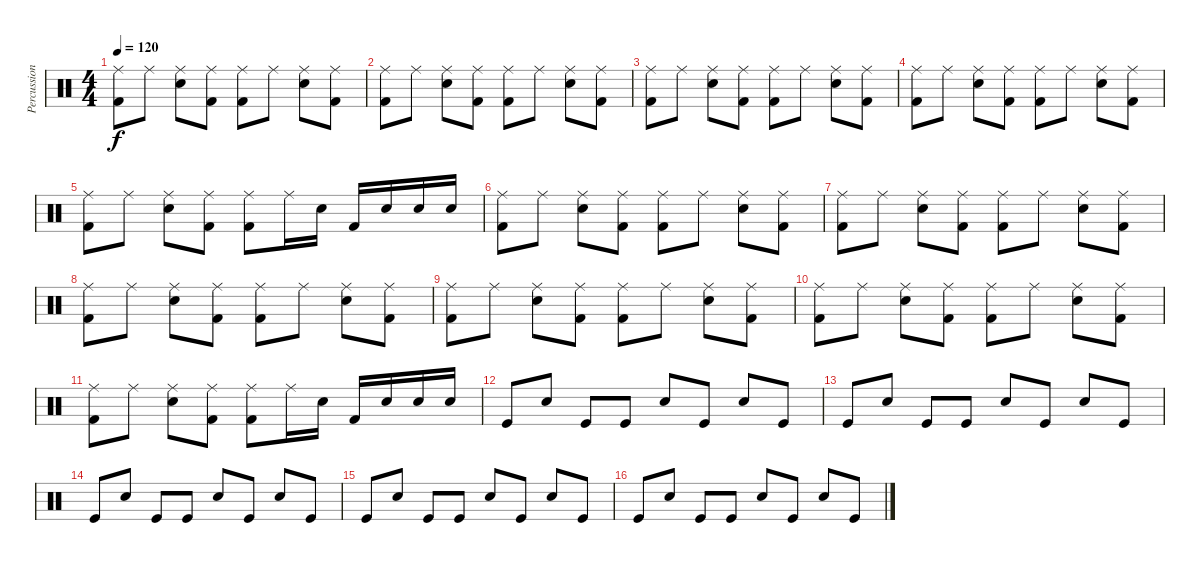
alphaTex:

\track ("Percussion" "Percussion") {instrument percussion}
\staff {score}
\articulation defaults
\ts (4 4)
\tempo 120
\clef neutral
\ks c
("Kick (hit) 2" "Ride (middle)").8{dy f} "Ride (middle)".8 ("Electric Snare (hit)" "Ride (middle)").8 ("Kick (hit) 2" "Ride (middle)").8 ("Kick (hit) 2" "Ride (middle)").8 "Ride (middle)".8 ("Electric Snare (hit)" "Ride (middle)").8 ("Kick (hit) 2" "Ride (middle)").8 |
("Kick (hit) 2" "Ride (middle)").8 "Ride (middle)".8 ("Electric Snare (hit)" "Ride (middle)").8 ("Kick (hit) 2" "Ride (middle)").8 ("Kick (hit) 2" "Ride (middle)").8 "Ride (middle)".8 ("Electric Snare (hit)" "Ride (middle)").8 ("Kick (hit) 2" "Ride (middle)").8 |
("Kick (hit) 2" "Ride (middle)").8 "Ride (middle)".8 ("Electric Snare (hit)" "Ride (middle)").8 ("Kick (hit) 2" "Ride (middle)").8 ("Kick (hit) 2" "Ride (middle)").8 "Ride (middle)".8 ("Electric Snare (hit)" "Ride (middle)").8 ("Kick (hit) 2" "Ride (middle)").8 |
("Kick (hit) 2" "Ride (middle)").8 "Ride (middle)".8 ("Electric Snare (hit)" "Ride (middle)").8 ("Kick (hit) 2" "Ride (middle)").8 ("Kick (hit) 2" "Ride (middle)").8 "Ride (middle)".8 ("Electric Snare (hit)" "Ride (middle)").8 ("Kick (hit) 2" "Ride (middle)").8 |
("Kick (hit) 2" "Ride (middle)").8 "Ride (middle)".8 ("Electric Snare (hit)" "Ride (middle)").8 ("Kick (hit) 2" "Ride (middle)").8 ("Kick (hit) 2" "Ride (middle)").8 "Ride (middle)".16 "Electric Snare (hit)".16 "Kick (hit) 2".16 "Electric Snare (hit)".16 "Electric Snare (hit)".16 "Electric Snare (hit)".16 |
("Kick (hit) 2" "Ride (middle)").8 "Ride (middle)".8 ("Electric Snare (hit)" "Ride (middle)").8 ("Kick (hit) 2" "Ride (middle)").8 ("Kick (hit) 2" "Ride (middle)").8 "Ride (middle)".8 ("Electric Snare (hit)" "Ride (middle)").8 ("Kick (hit) 2" "Ride (middle)").8 |
("Kick (hit) 2" "Ride (middle)").8 "Ride (middle)".8 ("Electric Snare (hit)" "Ride (middle)").8 ("Kick (hit) 2" "Ride (middle)").8 ("Kick (hit) 2" "Ride (middle)").8 "Ride (middle)".8 ("Electric Snare (hit)" "Ride (middle)").8 ("Kick (hit) 2" "Ride (middle)").8 |
("Kick (hit) 2" "Ride (middle)").8 "Ride (middle)".8 ("Electric Snare (hit)" "Ride (middle)").8 ("Kick (hit) 2" "Ride (middle)").8 ("Kick (hit) 2" "Ride (middle)").8 "Ride (middle)".8 ("Electric Snare (hit)" "Ride (middle)").8 ("Kick (hit) 2" "Ride (middle)").8 |
("Kick (hit) 2" "Ride (middle)").8 "Ride (middle)".8 ("Electric Snare (hit)" "Ride (middle)").8 ("Kick (hit) 2" "Ride (middle)").8 ("Kick (hit) 2" "Ride (middle)").8 "Ride (middle)".8 ("Electric Snare (hit)" "Ride (middle)").8 ("Kick (hit) 2" "Ride (middle)").8 |
("Kick (hit) 2" "Ride (middle)").8 "Ride (middle)".8 ("Electric Snare (hit)" "Ride (middle)").8 ("Kick (hit) 2" "Ride (middle)").8 ("Kick (hit) 2" "Ride (middle)").8 "Ride (middle)".8 ("Electric Snare (hit)" "Ride (middle)").8 ("Kick (hit) 2" "Ride (middle)").8 |
("Kick (hit) 2" "Ride (middle)").8 "Ride (middle)".8 ("Electric Snare (hit)" "Ride (middle)").8 ("Kick (hit) 2" "Ride (middle)").8 ("Kick (hit) 2" "Ride (middle)").8 "Ride (middle)".16 "Electric Snare (hit)".16 "Kick (hit) 2".16 "Electric Snare (hit)".16 "Electric Snare (hit)".16 "Electric Snare (hit)".16 |
"Kick (hit)".8 "Electric Snare (hit)".8 "Kick (hit)".8 "Kick (hit)".8 "Electric Snare (hit)".8 "Kick (hit)".8 "Electric Snare (hit)".8 "Kick (hit)".8 |
"Kick (hit)".8 "Electric Snare (hit)".8 "Kick (hit)".8 "Kick (hit)".8 "Electric Snare (hit)".8 "Kick (hit)".8 "Electric Snare (hit)".8 "Kick (hit)".8 |
"Kick (hit)".8 "Electric Snare (hit)".8 "Kick (hit)".8 "Kick (hit)".8 "Electric Snare (hit)".8 "Kick (hit)".8 "Electric Snare (hit)".8 "Kick (hit)".8 |
"Kick (hit)".8 "Electric Snare (hit)".8 "Kick (hit)".8 "Kick (hit)".8 "Electric Snare (hit)".8 "Kick (hit)".8 "Electric Snare (hit)".8 "Kick (hit)".8 |
"Kick (hit)".8 "Electric Snare (hit)".8 "Kick (hit)".8 "Kick (hit)".8 "Electric Snare (hit)".8 "Kick (hit)".8 "Electric Snare (hit)".8 "Kick (hit)".8
